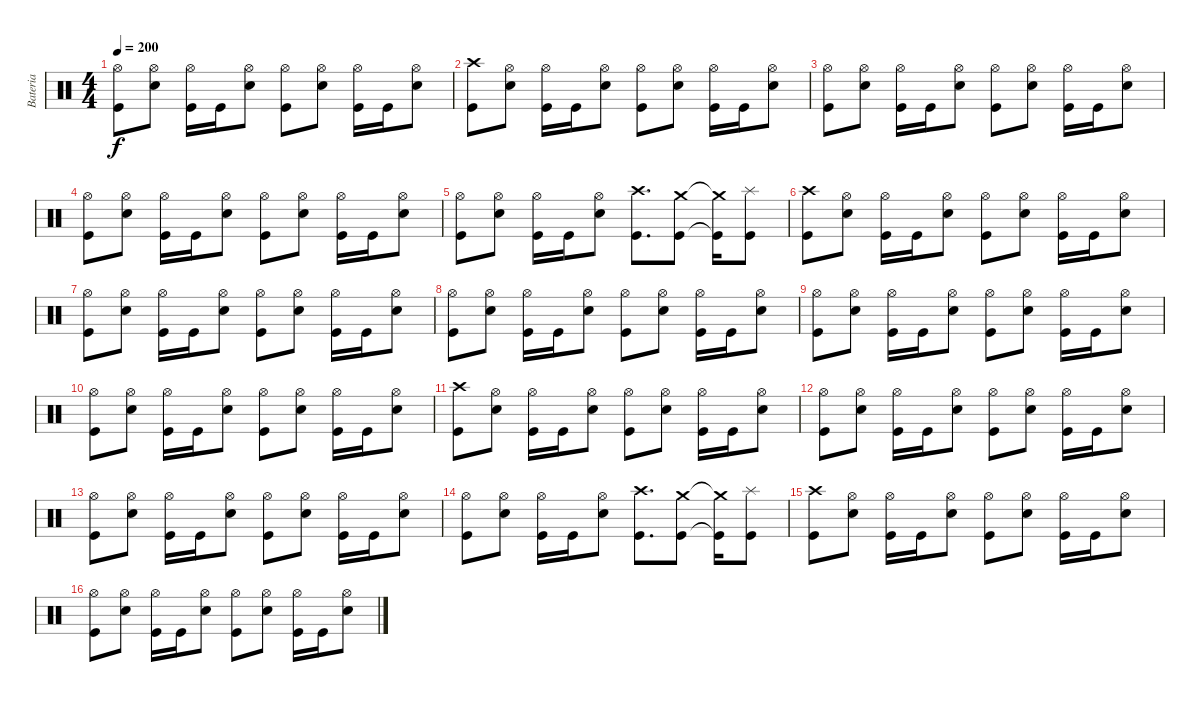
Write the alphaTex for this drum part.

\track ("Bateria" "Bateria") {instrument percussion}
\staff {score}
\articulation defaults
\ts (4 4)
\tempo 200
\clef neutral
\ks c
("Hi-Hat (open)" "Kick (hit)").8{dy f} ("Hi-Hat (open)" "Snare (hit) 2").8 ("Hi-Hat (open)" "Kick (hit)").16 "Kick (hit)".16 ("Hi-Hat (open)" "Snare (hit) 2").8 ("Hi-Hat (open)" "Kick (hit)").8 ("Hi-Hat (open)" "Snare (hit) 2").8 ("Hi-Hat (open)" "Kick (hit)").16 "Kick (hit)".16 ("Hi-Hat (open)" "Snare (hit) 2").8 |
("Crash high (hit)" "Kick (hit)").8 ("Hi-Hat (open)" "Snare (hit) 2").8 ("Hi-Hat (open)" "Kick (hit)").16 "Kick (hit)".16 ("Hi-Hat (open)" "Snare (hit) 2").8 ("Hi-Hat (open)" "Kick (hit)").8 ("Hi-Hat (open)" "Snare (hit) 2").8 ("Hi-Hat (open)" "Kick (hit)").16 "Kick (hit)".16 ("Hi-Hat (open)" "Snare (hit) 2").8 |
("Hi-Hat (open)" "Kick (hit)").8 ("Hi-Hat (open)" "Snare (hit) 2").8 ("Hi-Hat (open)" "Kick (hit)").16 "Kick (hit)".16 ("Hi-Hat (open)" "Snare (hit) 2").8 ("Hi-Hat (open)" "Kick (hit)").8 ("Hi-Hat (open)" "Snare (hit) 2").8 ("Hi-Hat (open)" "Kick (hit)").16 "Kick (hit)".16 ("Hi-Hat (open)" "Snare (hit) 2").8 |
("Hi-Hat (open)" "Kick (hit)").8 ("Hi-Hat (open)" "Snare (hit) 2").8 ("Hi-Hat (open)" "Kick (hit)").16 "Kick (hit)".16 ("Hi-Hat (open)" "Snare (hit) 2").8 ("Hi-Hat (open)" "Kick (hit)").8 ("Hi-Hat (open)" "Snare (hit) 2").8 ("Hi-Hat (open)" "Kick (hit)").16 "Kick (hit)".16 ("Hi-Hat (open)" "Snare (hit) 2").8 |
("Hi-Hat (open)" "Kick (hit)").8 ("Hi-Hat (open)" "Snare (hit) 2").8 ("Hi-Hat (open)" "Kick (hit)").16 "Kick (hit)".16 ("Hi-Hat (open)" "Snare (hit) 2").8 ("Crash high (hit)" "Kick (hit)").8{d} ("Crash medium (hit)" "Kick (hit)").8 ("Crash medium (hit)"{t} "Kick (hit)"{t}).16 ("Splash (hit)" "Kick (hit)").8 |
("Crash high (hit)" "Kick (hit)").8 ("Hi-Hat (open)" "Snare (hit) 2").8 ("Hi-Hat (open)" "Kick (hit)").16 "Kick (hit)".16 ("Hi-Hat (open)" "Snare (hit) 2").8 ("Hi-Hat (open)" "Kick (hit)").8 ("Hi-Hat (open)" "Snare (hit) 2").8 ("Hi-Hat (open)" "Kick (hit)").16 "Kick (hit)".16 ("Hi-Hat (open)" "Snare (hit) 2").8 |
("Hi-Hat (open)" "Kick (hit)").8 ("Hi-Hat (open)" "Snare (hit) 2").8 ("Hi-Hat (open)" "Kick (hit)").16 "Kick (hit)".16 ("Hi-Hat (open)" "Snare (hit) 2").8 ("Hi-Hat (open)" "Kick (hit)").8 ("Hi-Hat (open)" "Snare (hit) 2").8 ("Hi-Hat (open)" "Kick (hit)").16 "Kick (hit)".16 ("Hi-Hat (open)" "Snare (hit) 2").8 |
("Hi-Hat (open)" "Kick (hit)").8 ("Hi-Hat (open)" "Snare (hit) 2").8 ("Hi-Hat (open)" "Kick (hit)").16 "Kick (hit)".16 ("Hi-Hat (open)" "Snare (hit) 2").8 ("Hi-Hat (open)" "Kick (hit)").8 ("Hi-Hat (open)" "Snare (hit) 2").8 ("Hi-Hat (open)" "Kick (hit)").16 "Kick (hit)".16 ("Hi-Hat (open)" "Snare (hit) 2").8 |
("Hi-Hat (open)" "Kick (hit)").8 ("Hi-Hat (open)" "Snare (hit) 2").8 ("Hi-Hat (open)" "Kick (hit)").16 "Kick (hit)".16 ("Hi-Hat (open)" "Snare (hit) 2").8 ("Hi-Hat (open)" "Kick (hit)").8 ("Hi-Hat (open)" "Snare (hit) 2").8 ("Hi-Hat (open)" "Kick (hit)").16 "Kick (hit)".16 ("Hi-Hat (open)" "Snare (hit) 2").8 |
("Hi-Hat (open)" "Kick (hit)").8 ("Hi-Hat (open)" "Snare (hit) 2").8 ("Hi-Hat (open)" "Kick (hit)").16 "Kick (hit)".16 ("Hi-Hat (open)" "Snare (hit) 2").8 ("Hi-Hat (open)" "Kick (hit)").8 ("Hi-Hat (open)" "Snare (hit) 2").8 ("Hi-Hat (open)" "Kick (hit)").16 "Kick (hit)".16 ("Hi-Hat (open)" "Snare (hit) 2").8 |
("Crash high (hit)" "Kick (hit)").8 ("Hi-Hat (open)" "Snare (hit) 2").8 ("Hi-Hat (open)" "Kick (hit)").16 "Kick (hit)".16 ("Hi-Hat (open)" "Snare (hit) 2").8 ("Hi-Hat (open)" "Kick (hit)").8 ("Hi-Hat (open)" "Snare (hit) 2").8 ("Hi-Hat (open)" "Kick (hit)").16 "Kick (hit)".16 ("Hi-Hat (open)" "Snare (hit) 2").8 |
("Hi-Hat (open)" "Kick (hit)").8 ("Hi-Hat (open)" "Snare (hit) 2").8 ("Hi-Hat (open)" "Kick (hit)").16 "Kick (hit)".16 ("Hi-Hat (open)" "Snare (hit) 2").8 ("Hi-Hat (open)" "Kick (hit)").8 ("Hi-Hat (open)" "Snare (hit) 2").8 ("Hi-Hat (open)" "Kick (hit)").16 "Kick (hit)".16 ("Hi-Hat (open)" "Snare (hit) 2").8 |
("Hi-Hat (open)" "Kick (hit)").8 ("Hi-Hat (open)" "Snare (hit) 2").8 ("Hi-Hat (open)" "Kick (hit)").16 "Kick (hit)".16 ("Hi-Hat (open)" "Snare (hit) 2").8 ("Hi-Hat (open)" "Kick (hit)").8 ("Hi-Hat (open)" "Snare (hit) 2").8 ("Hi-Hat (open)" "Kick (hit)").16 "Kick (hit)".16 ("Hi-Hat (open)" "Snare (hit) 2").8 |
("Hi-Hat (open)" "Kick (hit)").8 ("Hi-Hat (open)" "Snare (hit) 2").8 ("Hi-Hat (open)" "Kick (hit)").16 "Kick (hit)".16 ("Hi-Hat (open)" "Snare (hit) 2").8 ("Crash high (hit)" "Kick (hit)").8{d} ("Crash medium (hit)" "Kick (hit)").8 ("Crash medium (hit)"{t} "Kick (hit)"{t}).16 ("Splash (hit)" "Kick (hit)").8 |
("Crash high (hit)" "Kick (hit)").8 ("Hi-Hat (open)" "Snare (hit) 2").8 ("Hi-Hat (open)" "Kick (hit)").16 "Kick (hit)".16 ("Hi-Hat (open)" "Snare (hit) 2").8 ("Hi-Hat (open)" "Kick (hit)").8 ("Hi-Hat (open)" "Snare (hit) 2").8 ("Hi-Hat (open)" "Kick (hit)").16 "Kick (hit)".16 ("Hi-Hat (open)" "Snare (hit) 2").8 |
("Hi-Hat (open)" "Kick (hit)").8 ("Hi-Hat (open)" "Snare (hit) 2").8 ("Hi-Hat (open)" "Kick (hit)").16 "Kick (hit)".16 ("Hi-Hat (open)" "Snare (hit) 2").8 ("Hi-Hat (open)" "Kick (hit)").8 ("Hi-Hat (open)" "Snare (hit) 2").8 ("Hi-Hat (open)" "Kick (hit)").16 "Kick (hit)".16 ("Hi-Hat (open)" "Snare (hit) 2").8
